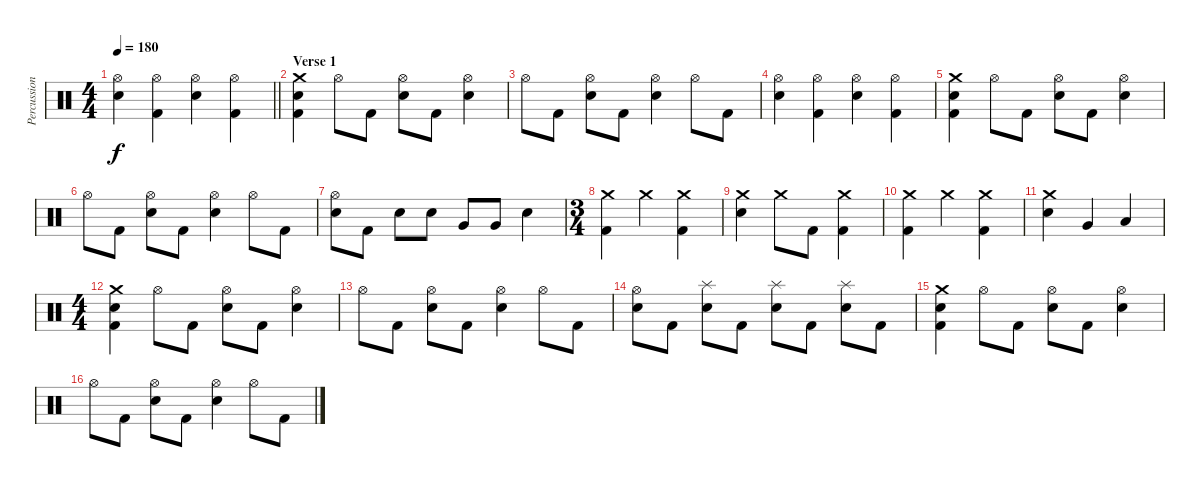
\track ("Percussion" "Percussion") {instrument percussion}
\staff {score}
\articulation defaults
\ts (4 4)
\tempo 180
\clef neutral
\barLineRight lightlight
\ks c
("Hi-Hat (open)" "Snare (hit) 2").4{dy f} ("Hi-Hat (open)" "Kick (hit) 2").4 ("Hi-Hat (open)" "Snare (hit) 2").4 ("Hi-Hat (open)" "Kick (hit) 2").4 |
\section ("" "Verse 1")
("Crash medium (hit)" "Snare (hit) 2" "Kick (hit) 2").4 "Hi-Hat (open)".8 "Kick (hit) 2".8 ("Hi-Hat (open)" "Snare (hit) 2").8 "Kick (hit) 2".8 ("Hi-Hat (open)" "Snare (hit) 2").4 |
"Hi-Hat (open)".8 "Kick (hit) 2".8 ("Hi-Hat (open)" "Snare (hit) 2").8 "Kick (hit) 2".8 ("Hi-Hat (open)" "Snare (hit) 2").4 "Hi-Hat (open)".8 "Kick (hit) 2".8 |
("Hi-Hat (open)" "Snare (hit) 2").4 ("Hi-Hat (open)" "Kick (hit) 2").4 ("Hi-Hat (open)" "Snare (hit) 2").4 ("Hi-Hat (open)" "Kick (hit) 2").4 |
("Crash medium (hit)" "Snare (hit) 2" "Kick (hit) 2").4 "Hi-Hat (open)".8 "Kick (hit) 2".8 ("Hi-Hat (open)" "Snare (hit) 2").8 "Kick (hit) 2".8 ("Hi-Hat (open)" "Snare (hit) 2").4 |
"Hi-Hat (open)".8 "Kick (hit) 2".8 ("Hi-Hat (open)" "Snare (hit) 2").8 "Kick (hit) 2".8 ("Hi-Hat (open)" "Snare (hit) 2").4 "Hi-Hat (open)".8 "Kick (hit) 2".8 |
("Hi-Hat (open)" "Snare (hit) 2").8 "Kick (hit) 2".8 "Snare (hit) 2".8 "Snare (hit) 2".8 "Very Low Tom (hit)".8 "Very Low Tom (hit)".8 "Snare (hit) 2".4 |
\ts (3 4)
("Crash medium (hit)" "Kick (hit) 2").4 "Crash medium (hit)".4 ("Crash medium (hit)" "Kick (hit) 2").4 |
("Crash medium (hit)" "Snare (hit) 2").4 "Crash medium (hit)".8 "Kick (hit) 2".8 ("Crash medium (hit)" "Kick (hit) 2").4 |
("Crash medium (hit)" "Kick (hit) 2").4 "Crash medium (hit)".4 ("Crash medium (hit)" "Kick (hit) 2").4 |
("Crash medium (hit)" "Snare (hit) 2").4 "Very Low Tom (hit)".4 "Low Floor Tom (hit)".4 |
\ts (4 4)
("Crash medium (hit)" "Snare (hit) 2" "Kick (hit) 2").4 "Hi-Hat (open)".8 "Kick (hit) 2".8 ("Hi-Hat (open)" "Snare (hit) 2").8 "Kick (hit) 2".8 ("Hi-Hat (open)" "Snare (hit) 2").4 |
"Hi-Hat (open)".8 "Kick (hit) 2".8 ("Hi-Hat (open)" "Snare (hit) 2").8 "Kick (hit) 2".8 ("Hi-Hat (open)" "Snare (hit) 2").4 "Hi-Hat (open)".8 "Kick (hit) 2".8 |
("Hi-Hat (open)" "Snare (hit) 2").8 "Kick (hit) 2".8 ("Splash (hit)" "Snare (hit) 2").8 "Kick (hit) 2".8 ("Splash (hit)" "Snare (hit) 2").8 "Kick (hit) 2".8 ("Splash (hit)" "Snare (hit) 2").8 "Kick (hit) 2".8 |
("Crash medium (hit)" "Snare (hit) 2" "Kick (hit) 2").4 "Hi-Hat (open)".8 "Kick (hit) 2".8 ("Hi-Hat (open)" "Snare (hit) 2").8 "Kick (hit) 2".8 ("Hi-Hat (open)" "Snare (hit) 2").4 |
"Hi-Hat (open)".8 "Kick (hit) 2".8 ("Hi-Hat (open)" "Snare (hit) 2").8 "Kick (hit) 2".8 ("Hi-Hat (open)" "Snare (hit) 2").4 "Hi-Hat (open)".8 "Kick (hit) 2".8
